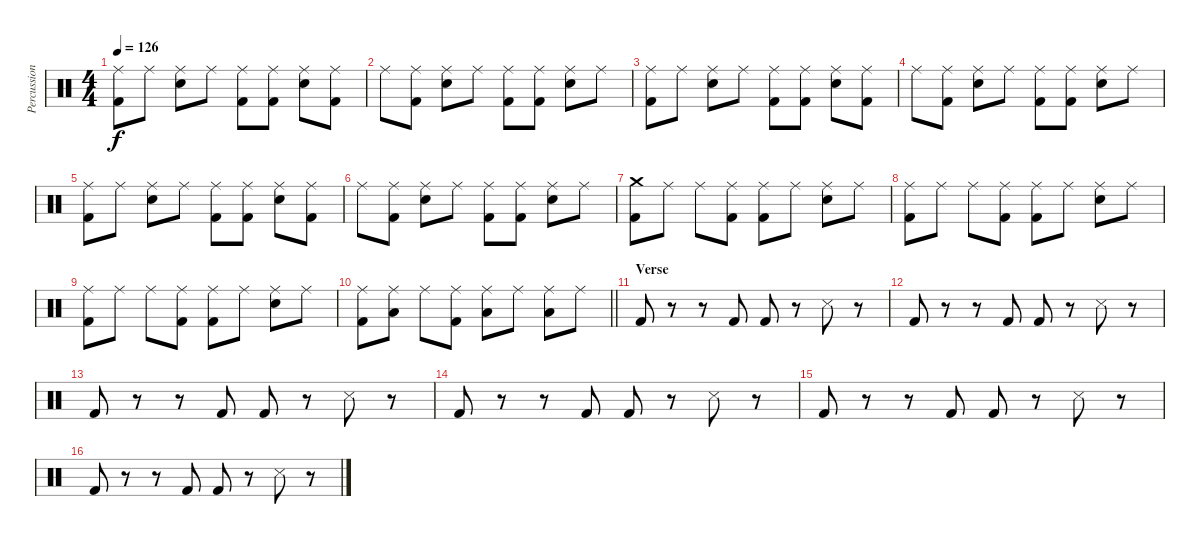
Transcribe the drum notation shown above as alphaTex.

\track ("Percussions" "Percussion") {instrument percussion}
\staff {score}
\articulation defaults
\ts (4 4)
\tempo 126
\clef neutral
\ks c
("Ride (middle)" "Kick (hit) 2").8{dy f} "Ride (middle)".8 ("Ride (middle)" "Snare (hit) 2").8 "Ride (middle)".8 ("Ride (middle)" "Kick (hit) 2").8 ("Ride (middle)" "Kick (hit) 2").8 ("Ride (middle)" "Snare (hit) 2").8 ("Ride (middle)" "Kick (hit) 2").8 |
"Ride (middle)".8 ("Ride (middle)" "Kick (hit) 2").8 ("Ride (middle)" "Snare (hit) 2").8 "Ride (middle)".8 ("Ride (middle)" "Kick (hit) 2").8 ("Ride (middle)" "Kick (hit) 2").8 ("Ride (middle)" "Snare (hit) 2").8 "Ride (middle)".8 |
("Ride (middle)" "Kick (hit) 2").8 "Ride (middle)".8 ("Ride (middle)" "Snare (hit) 2").8 "Ride (middle)".8 ("Ride (middle)" "Kick (hit) 2").8 ("Ride (middle)" "Kick (hit) 2").8 ("Ride (middle)" "Snare (hit) 2").8 ("Ride (middle)" "Kick (hit) 2").8 |
"Ride (middle)".8 ("Ride (middle)" "Kick (hit) 2").8 ("Ride (middle)" "Snare (hit) 2").8 "Ride (middle)".8 ("Ride (middle)" "Kick (hit) 2").8 ("Ride (middle)" "Kick (hit) 2").8 ("Ride (middle)" "Snare (hit) 2").8 "Ride (middle)".8 |
("Ride (middle)" "Kick (hit) 2").8 "Ride (middle)".8 ("Ride (middle)" "Snare (hit) 2").8 "Ride (middle)".8 ("Ride (middle)" "Kick (hit) 2").8 ("Ride (middle)" "Kick (hit) 2").8 ("Ride (middle)" "Snare (hit) 2").8 ("Ride (middle)" "Kick (hit) 2").8 |
"Ride (middle)".8 ("Ride (middle)" "Kick (hit) 2").8 ("Ride (middle)" "Snare (hit) 2").8 "Ride (middle)".8 ("Ride (middle)" "Kick (hit) 2").8 ("Ride (middle)" "Kick (hit) 2").8 ("Ride (middle)" "Snare (hit) 2").8 "Ride (middle)".8 |
("Crash medium (hit)" "Kick (hit) 2").8 "Ride (middle)".8 "Ride (middle)".8 ("Ride (middle)" "Kick (hit) 2").8 ("Ride (middle)" "Kick (hit) 2").8 "Ride (middle)".8 ("Ride (middle)" "Snare (hit) 2").8 "Ride (middle)".8 |
("Ride (middle)" "Kick (hit) 2").8 "Ride (middle)".8 "Ride (middle)".8 ("Ride (middle)" "Kick (hit) 2").8 ("Ride (middle)" "Kick (hit) 2").8 "Ride (middle)".8 ("Ride (middle)" "Snare (hit) 2").8 "Ride (middle)".8 |
("Ride (middle)" "Kick (hit) 2").8 "Ride (middle)".8 "Ride (middle)".8 ("Ride (middle)" "Kick (hit) 2").8 ("Ride (middle)" "Kick (hit) 2").8 "Ride (middle)".8 ("Ride (middle)" "Snare (hit) 2").8 "Ride (middle)".8 |
\barLineRight lightlight
("Ride (middle)" "Kick (hit) 2").8 ("Ride (middle)" "Low Tom (hit)").8 "Ride (middle)".8 ("Ride (middle)" "Kick (hit) 2").8 ("Ride (middle)" "Low Tom (hit)").8 "Ride (middle)".8 ("Ride (middle)" "Low Floor Tom (hit)").8 "Ride (middle)".8 |
\section ("" "Verse")
"Kick (hit) 2".8 r.8 r.8 "Kick (hit) 2".8 "Kick (hit) 2".8 r.8 "Snare (side stick) 3".8 r.8 |
"Kick (hit) 2".8 r.8 r.8 "Kick (hit) 2".8 "Kick (hit) 2".8 r.8 "Snare (side stick) 3".8 r.8 |
"Kick (hit) 2".8 r.8 r.8 "Kick (hit) 2".8 "Kick (hit) 2".8 r.8 "Snare (side stick) 3".8 r.8 |
"Kick (hit) 2".8 r.8 r.8 "Kick (hit) 2".8 "Kick (hit) 2".8 r.8 "Snare (side stick) 3".8 r.8 |
"Kick (hit) 2".8 r.8 r.8 "Kick (hit) 2".8 "Kick (hit) 2".8 r.8 "Snare (side stick) 3".8 r.8 |
"Kick (hit) 2".8 r.8 r.8 "Kick (hit) 2".8 "Kick (hit) 2".8 r.8 "Snare (side stick) 3".8 r.8
